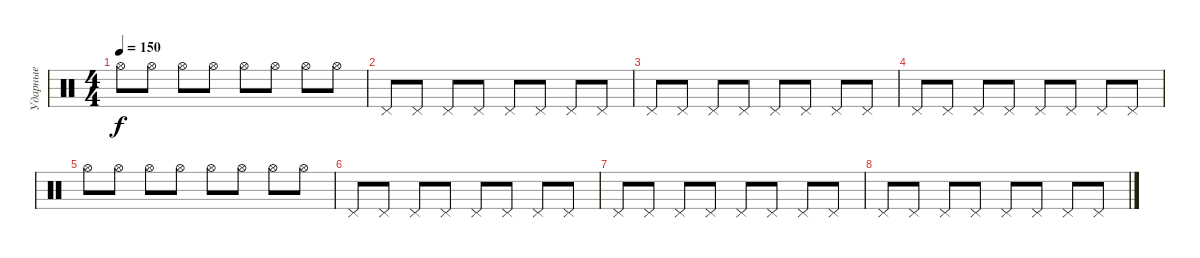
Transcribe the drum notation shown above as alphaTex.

\track ("Ударные" "Ударные") {instrument percussion}
\staff {score}
\articulation defaults
\ts (4 4)
\tempo 150
\clef neutral
\ks c "Hi-Hat (open)".8{dy f} "Hi-Hat (open)".8 "Hi-Hat (open)".8 "Hi-Hat (open)".8 "Hi-Hat (open)".8 "Hi-Hat (open)".8 "Hi-Hat (open)".8 "Hi-Hat (open)".8
|
"Pedal Hi-Hat (hit)".8 "Pedal Hi-Hat (hit)".8 "Pedal Hi-Hat (hit)".8 "Pedal Hi-Hat (hit)".8 "Pedal Hi-Hat (hit)".8 "Pedal Hi-Hat (hit)".8 "Pedal Hi-Hat (hit)".8 "Pedal Hi-Hat (hit)".8 |
"Pedal Hi-Hat (hit)".8 "Pedal Hi-Hat (hit)".8 "Pedal Hi-Hat (hit)".8 "Pedal Hi-Hat (hit)".8 "Pedal Hi-Hat (hit)".8 "Pedal Hi-Hat (hit)".8 "Pedal Hi-Hat (hit)".8 "Pedal Hi-Hat (hit)".8 |
"Pedal Hi-Hat (hit)".8 "Pedal Hi-Hat (hit)".8 "Pedal Hi-Hat (hit)".8 "Pedal Hi-Hat (hit)".8 "Pedal Hi-Hat (hit)".8 "Pedal Hi-Hat (hit)".8 "Pedal Hi-Hat (hit)".8 "Pedal Hi-Hat (hit)".8 |
"Hi-Hat (open)".8 "Hi-Hat (open)".8 "Hi-Hat (open)".8 "Hi-Hat (open)".8 "Hi-Hat (open)".8 "Hi-Hat (open)".8 "Hi-Hat (open)".8 "Hi-Hat (open)".8 |
"Pedal Hi-Hat (hit)".8 "Pedal Hi-Hat (hit)".8 "Pedal Hi-Hat (hit)".8 "Pedal Hi-Hat (hit)".8 "Pedal Hi-Hat (hit)".8 "Pedal Hi-Hat (hit)".8 "Pedal Hi-Hat (hit)".8 "Pedal Hi-Hat (hit)".8 |
"Pedal Hi-Hat (hit)".8 "Pedal Hi-Hat (hit)".8 "Pedal Hi-Hat (hit)".8 "Pedal Hi-Hat (hit)".8 "Pedal Hi-Hat (hit)".8 "Pedal Hi-Hat (hit)".8 "Pedal Hi-Hat (hit)".8 "Pedal Hi-Hat (hit)".8 |
"Pedal Hi-Hat (hit)".8 "Pedal Hi-Hat (hit)".8 "Pedal Hi-Hat (hit)".8 "Pedal Hi-Hat (hit)".8 "Pedal Hi-Hat (hit)".8 "Pedal Hi-Hat (hit)".8 "Pedal Hi-Hat (hit)".8 "Pedal Hi-Hat (hit)".8
